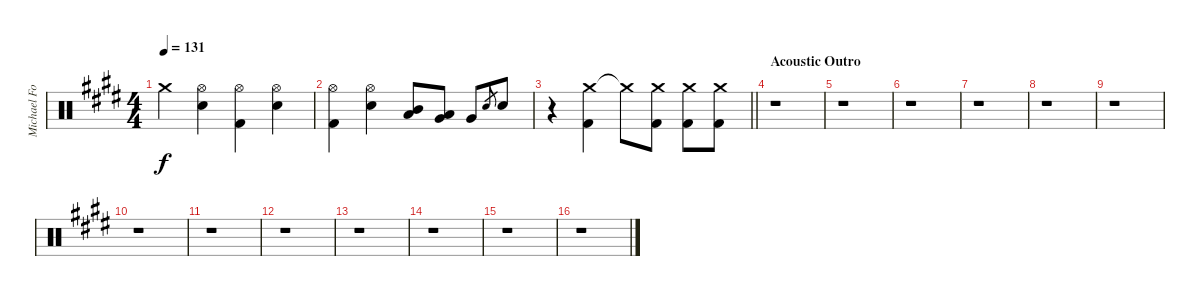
\track ("Michael Foster Drums" "Michael Fo") {instrument percussion}
\staff {score}
\articulation defaults
\ts (4 4)
\tempo 131
\clef neutral
\ks e "Crash medium (hit)"{t}.4{dy f}
("Hi-Hat (open)" "Snare (hit) 2").4 ("Hi-Hat (open)" "Kick (hit) 2").4 ("Hi-Hat (open)" "Snare (hit) 2").4 |
("Hi-Hat (open)" "Kick (hit) 2").4 ("Hi-Hat (open)" "Snare (hit) 2").4 ("Mid Tom (hit)" "Low Tom (hit)").8 ("Low Tom (hit)" "Very Low Tom (hit)").8 "Very Low Tom (hit)".8 "Snare (hit) 2".8{gr} "Snare (hit) 2".8 |
\barLineRight lightlight
r.4 ("Crash medium (hit)" "Kick (hit) 2").4 "Crash medium (hit)"{t}.8 ("Crash medium (hit)" "Kick (hit) 2").8 ("Crash medium (hit)" "Kick (hit) 2").8 ("Crash medium (hit)" "Kick (hit) 2").8 |
\section ("" "Acoustic Outro")
r.1 |
r.1 |
r.1 |
r.1 |
r.1 |
r.1 |
r.1 |
r.1 |
r.1 |
r.1 |
r.1 |
r.1 |
r.1
